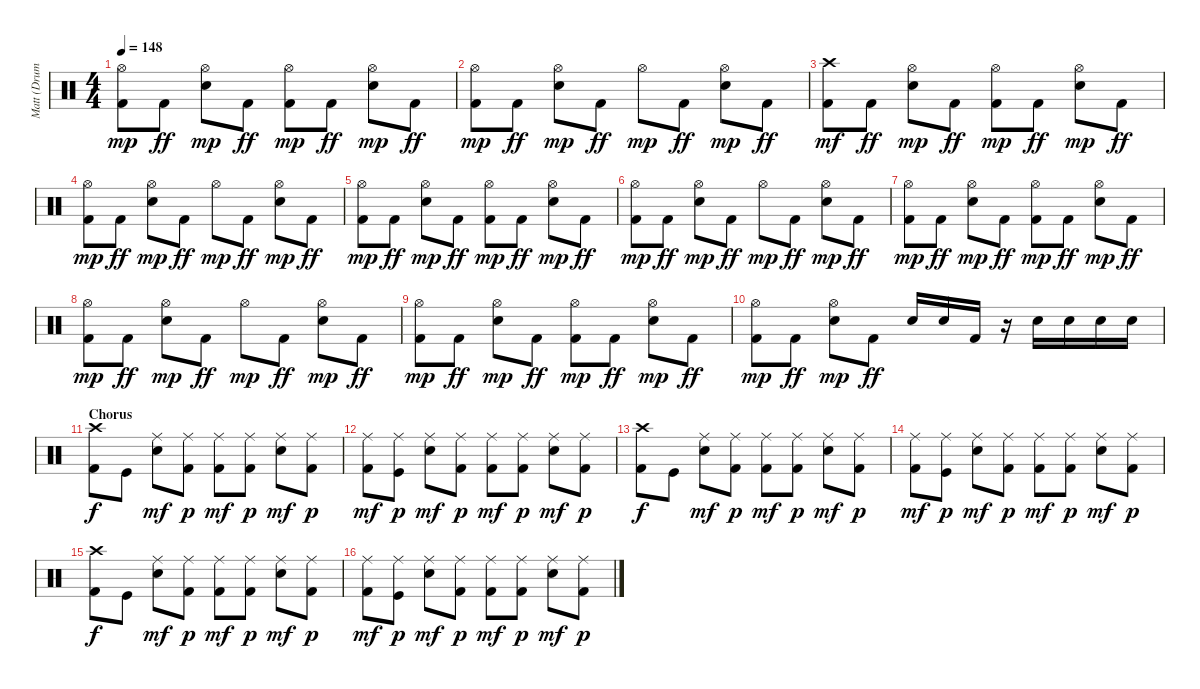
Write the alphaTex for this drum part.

\track ("Matt (Drums)" "Matt (Drum") {instrument percussion}
\staff {score}
\articulation defaults
\ts (4 4)
\tempo 148
\clef neutral
\ks c
("Kick (hit) 2" "Hi-Hat (open)").8{dy mp} "Kick (hit) 2".8{dy ff} ("Electric Snare (hit)" "Hi-Hat (open)").8{dy mp} "Kick (hit) 2".8{dy ff} ("Kick (hit) 2" "Hi-Hat (open)").8{dy mp} "Kick (hit) 2".8{dy ff} ("Electric Snare (hit)" "Hi-Hat (open)").8{dy mp} "Kick (hit) 2".8{dy ff} |
("Kick (hit) 2" "Hi-Hat (open)").8{dy mp} "Kick (hit) 2".8{dy ff} ("Electric Snare (hit)" "Hi-Hat (open)").8{dy mp} "Kick (hit) 2".8{dy ff} "Hi-Hat (open)".8{dy mp} "Kick (hit) 2".8{dy ff} ("Electric Snare (hit)" "Hi-Hat (open)").8{dy mp} "Kick (hit) 2".8{dy ff} |
("Kick (hit) 2" "Crash high (hit)").8{dy mf} "Kick (hit) 2".8{dy ff} ("Electric Snare (hit)" "Hi-Hat (open)").8{dy mp} "Kick (hit) 2".8{dy ff} ("Kick (hit) 2" "Hi-Hat (open)").8{dy mp} "Kick (hit) 2".8{dy ff} ("Electric Snare (hit)" "Hi-Hat (open)").8{dy mp} "Kick (hit) 2".8{dy ff} |
("Kick (hit) 2" "Hi-Hat (open)").8{dy mp} "Kick (hit) 2".8{dy ff} ("Electric Snare (hit)" "Hi-Hat (open)").8{dy mp} "Kick (hit) 2".8{dy ff} "Hi-Hat (open)".8{dy mp} "Kick (hit) 2".8{dy ff} ("Electric Snare (hit)" "Hi-Hat (open)").8{dy mp} "Kick (hit) 2".8{dy ff} |
("Kick (hit) 2" "Hi-Hat (open)").8{dy mp} "Kick (hit) 2".8{dy ff} ("Electric Snare (hit)" "Hi-Hat (open)").8{dy mp} "Kick (hit) 2".8{dy ff} ("Kick (hit) 2" "Hi-Hat (open)").8{dy mp} "Kick (hit) 2".8{dy ff} ("Electric Snare (hit)" "Hi-Hat (open)").8{dy mp} "Kick (hit) 2".8{dy ff} |
("Kick (hit) 2" "Hi-Hat (open)").8{dy mp} "Kick (hit) 2".8{dy ff} ("Electric Snare (hit)" "Hi-Hat (open)").8{dy mp} "Kick (hit) 2".8{dy ff} "Hi-Hat (open)".8{dy mp} "Kick (hit) 2".8{dy ff} ("Electric Snare (hit)" "Hi-Hat (open)").8{dy mp} "Kick (hit) 2".8{dy ff} |
("Kick (hit) 2" "Hi-Hat (open)").8{dy mp} "Kick (hit) 2".8{dy ff} ("Electric Snare (hit)" "Hi-Hat (open)").8{dy mp} "Kick (hit) 2".8{dy ff} ("Kick (hit) 2" "Hi-Hat (open)").8{dy mp} "Kick (hit) 2".8{dy ff} ("Electric Snare (hit)" "Hi-Hat (open)").8{dy mp} "Kick (hit) 2".8{dy ff} |
("Kick (hit) 2" "Hi-Hat (open)").8{dy mp} "Kick (hit) 2".8{dy ff} ("Electric Snare (hit)" "Hi-Hat (open)").8{dy mp} "Kick (hit) 2".8{dy ff} "Hi-Hat (open)".8{dy mp} "Kick (hit) 2".8{dy ff} ("Electric Snare (hit)" "Hi-Hat (open)").8{dy mp} "Kick (hit) 2".8{dy ff} |
("Kick (hit) 2" "Hi-Hat (open)").8{dy mp} "Kick (hit) 2".8{dy ff} ("Electric Snare (hit)" "Hi-Hat (open)").8{dy mp} "Kick (hit) 2".8{dy ff} ("Kick (hit) 2" "Hi-Hat (open)").8{dy mp} "Kick (hit) 2".8{dy ff} ("Electric Snare (hit)" "Hi-Hat (open)").8{dy mp} "Kick (hit) 2".8{dy ff} |
("Kick (hit) 2" "Hi-Hat (open)").8{dy mp} "Kick (hit) 2".8{dy ff} ("Electric Snare (hit)" "Hi-Hat (open)").8{dy mp} "Kick (hit) 2".8{dy ff} "Electric Snare (hit)".16 "Electric Snare (hit)".16 "Kick (hit) 2".16 r.16 "Electric Snare (hit)".16 "Electric Snare (hit)".16 "Electric Snare (hit)".16 "Electric Snare (hit)".16 |
\section ("" "Chorus")
("Kick (hit) 2" "Crash high (hit)").8{dy f} "Kick (hit)".8 ("Electric Snare (hit)" "Ride (middle)").8{dy mf} ("Kick (hit) 2" "Ride (middle)").8{dy p} ("Kick (hit) 2" "Ride (middle)").8{dy mf} ("Kick (hit) 2" "Ride (middle)").8{dy p} ("Electric Snare (hit)" "Ride (middle)").8{dy mf} ("Kick (hit) 2" "Ride (middle)").8{dy p} |
("Kick (hit) 2" "Ride (middle)").8{dy mf} ("Kick (hit)" "Ride (middle)").8{dy p} ("Electric Snare (hit)" "Ride (middle)").8{dy mf} ("Kick (hit) 2" "Ride (middle)").8{dy p} ("Kick (hit) 2" "Ride (middle)").8{dy mf} ("Kick (hit) 2" "Ride (middle)").8{dy p} ("Electric Snare (hit)" "Ride (middle)").8{dy mf} ("Kick (hit) 2" "Ride (middle)").8{dy p} |
("Kick (hit) 2" "Crash high (hit)").8{dy f} "Kick (hit)".8 ("Electric Snare (hit)" "Ride (middle)").8{dy mf} ("Kick (hit) 2" "Ride (middle)").8{dy p} ("Kick (hit) 2" "Ride (middle)").8{dy mf} ("Kick (hit) 2" "Ride (middle)").8{dy p} ("Electric Snare (hit)" "Ride (middle)").8{dy mf} ("Kick (hit) 2" "Ride (middle)").8{dy p} |
("Kick (hit) 2" "Ride (middle)").8{dy mf} ("Kick (hit)" "Ride (middle)").8{dy p} ("Electric Snare (hit)" "Ride (middle)").8{dy mf} ("Kick (hit) 2" "Ride (middle)").8{dy p} ("Kick (hit) 2" "Ride (middle)").8{dy mf} ("Kick (hit) 2" "Ride (middle)").8{dy p} ("Electric Snare (hit)" "Ride (middle)").8{dy mf} ("Kick (hit) 2" "Ride (middle)").8{dy p} |
("Kick (hit) 2" "Crash high (hit)").8{dy f} "Kick (hit)".8 ("Electric Snare (hit)" "Ride (middle)").8{dy mf} ("Kick (hit) 2" "Ride (middle)").8{dy p} ("Kick (hit) 2" "Ride (middle)").8{dy mf} ("Kick (hit) 2" "Ride (middle)").8{dy p} ("Electric Snare (hit)" "Ride (middle)").8{dy mf} ("Kick (hit) 2" "Ride (middle)").8{dy p} |
("Kick (hit) 2" "Ride (middle)").8{dy mf} ("Kick (hit)" "Ride (middle)").8{dy p} ("Electric Snare (hit)" "Ride (middle)").8{dy mf} ("Kick (hit) 2" "Ride (middle)").8{dy p} ("Kick (hit) 2" "Ride (middle)").8{dy mf} ("Kick (hit) 2" "Ride (middle)").8{dy p} ("Electric Snare (hit)" "Ride (middle)").8{dy mf} ("Kick (hit) 2" "Ride (middle)").8{dy p}
